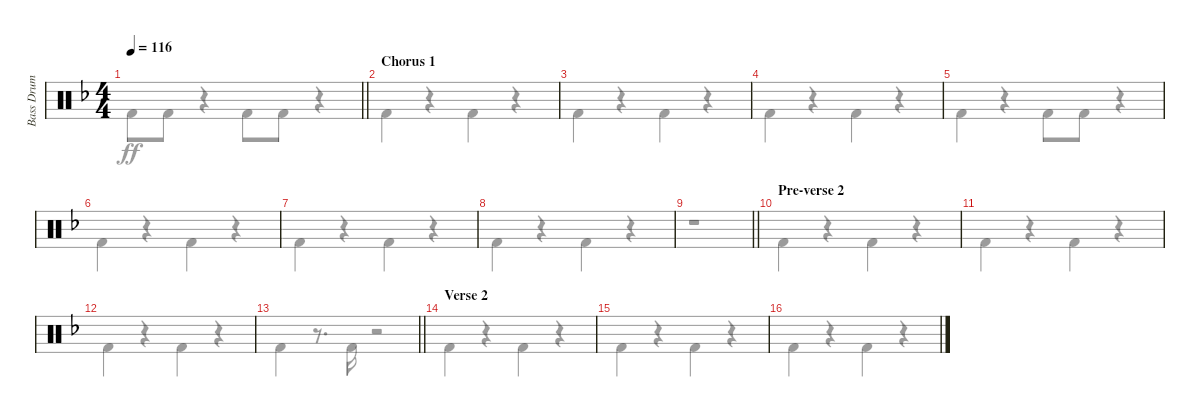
\track ("Bass Drum" "Bass Drum") {instrument percussion}
\staff {score}
\articulation defaults
\voice
\ts (4 4)
\tempo 116
\clef neutral
\barLineRight lightlight
\ks f
|
\section ("" "Chorus 1")
|
|
|
|
|
|
|
\barLineRight lightlight
|
\section ("" "Pre-verse 2")
|
|
|
\barLineRight lightlight
|
\section ("" "Verse 2")
|
|
\voice
\clef neutral
\barLineRight lightlight
\ks f "Kick (hit) 2".8{dy ff} "Kick (hit) 2".8
r.4 "Kick (hit) 2".8 "Kick (hit) 2".8 r.4 |
"Kick (hit) 2".4 r.4 "Kick (hit) 2".4 r.4 |
"Kick (hit) 2".4 r.4 "Kick (hit) 2".4 r.4 |
"Kick (hit) 2".4 r.4 "Kick (hit) 2".4 r.4 |
"Kick (hit) 2".4 r.4 "Kick (hit) 2".8 "Kick (hit) 2".8 r.4 |
"Kick (hit) 2".4 r.4 "Kick (hit) 2".4 r.4 |
"Kick (hit) 2".4 r.4 "Kick (hit) 2".4 r.4 |
"Kick (hit) 2".4 r.4 "Kick (hit) 2".4 r.4 |
\barLineRight lightlight
r.1 |
"Kick (hit) 2".4 r.4 "Kick (hit) 2".4 r.4 |
"Kick (hit) 2".4 r.4 "Kick (hit) 2".4 r.4 |
"Kick (hit) 2".4 r.4 "Kick (hit) 2".4 r.4 |
\barLineRight lightlight "Kick (hit) 2".4
r.8{d} "Kick (hit) 2".16 r.2 |
"Kick (hit) 2".4 r.4 "Kick (hit) 2".4 r.4 |
"Kick (hit) 2".4 r.4 "Kick (hit) 2".4 r.4 |
"Kick (hit) 2".4 r.4 "Kick (hit) 2".4 r.4
